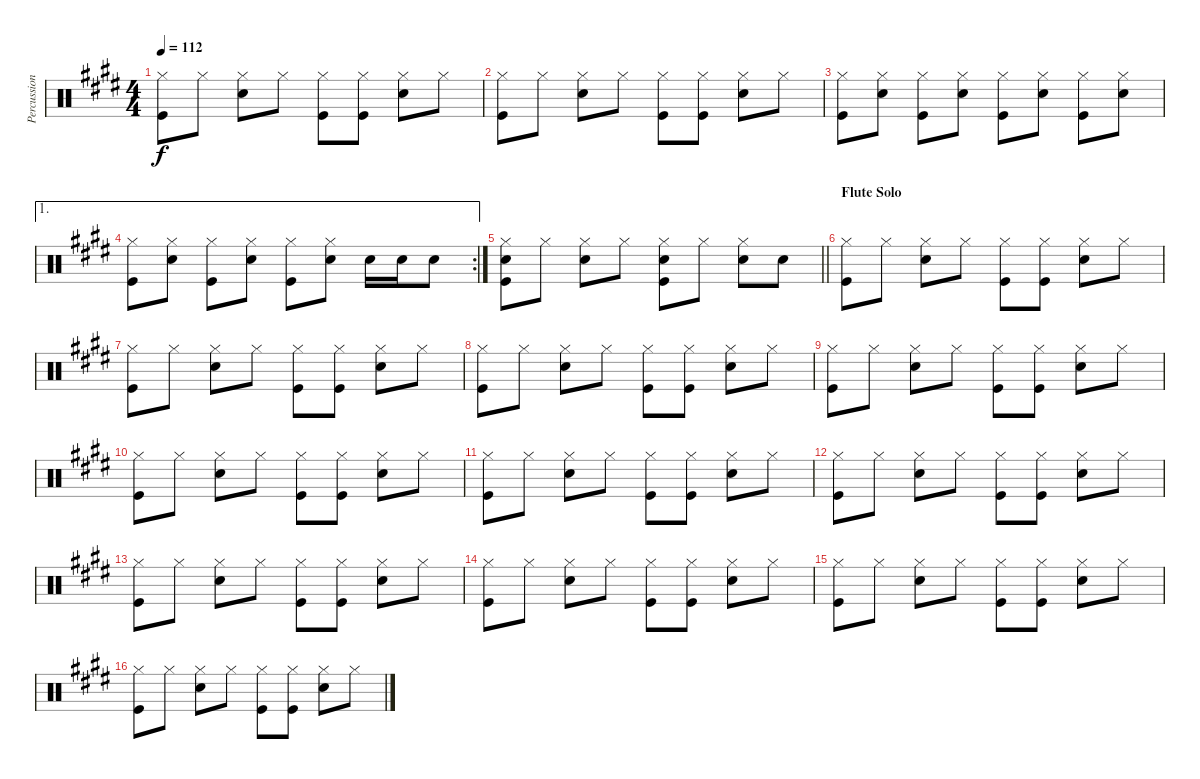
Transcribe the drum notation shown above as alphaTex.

\track ("Percussion" "Percussion") {instrument percussion}
\staff {score}
\articulation defaults
\ts (4 4)
\tempo 112
\clef neutral
\ks e
("Hi-Hat (closed)" "Kick (hit)").8{dy f} "Hi-Hat (closed)".8 ("Hi-Hat (closed)" "Snare (hit) 2").8 "Hi-Hat (closed)".8 ("Hi-Hat (closed)" "Kick (hit)").8 ("Hi-Hat (closed)" "Kick (hit)").8 ("Hi-Hat (closed)" "Snare (hit) 2").8 "Hi-Hat (closed)".8 |
("Hi-Hat (closed)" "Kick (hit)").8 "Hi-Hat (closed)".8 ("Hi-Hat (closed)" "Snare (hit) 2").8 "Hi-Hat (closed)".8 ("Hi-Hat (closed)" "Kick (hit)").8 ("Hi-Hat (closed)" "Kick (hit)").8 ("Hi-Hat (closed)" "Snare (hit) 2").8 "Hi-Hat (closed)".8 |
("Hi-Hat (closed)" "Kick (hit)").8 ("Hi-Hat (closed)" "Snare (hit) 2").8 ("Hi-Hat (closed)" "Kick (hit)").8 ("Hi-Hat (closed)" "Snare (hit) 2").8 ("Hi-Hat (closed)" "Kick (hit)").8 ("Hi-Hat (closed)" "Snare (hit) 2").8 ("Hi-Hat (closed)" "Kick (hit)").8 ("Hi-Hat (closed)" "Snare (hit) 2").8 |
\ae 1
\rc 2
("Hi-Hat (closed)" "Kick (hit)").8 ("Hi-Hat (closed)" "Snare (hit) 2").8 ("Hi-Hat (closed)" "Kick (hit)").8 ("Hi-Hat (closed)" "Snare (hit) 2").8 ("Hi-Hat (closed)" "Kick (hit)").8 ("Hi-Hat (closed)" "Snare (hit) 2").8 "Snare (hit) 2".16 "Snare (hit) 2".16 "Snare (hit) 2".8 |
\barLineRight lightlight
("Hi-Hat (closed)" "Snare (hit) 2" "Kick (hit)").8 "Hi-Hat (closed)".8 ("Hi-Hat (closed)" "Snare (hit) 2").8 "Hi-Hat (closed)".8 ("Hi-Hat (closed)" "Snare (hit) 2" "Kick (hit)").8 "Hi-Hat (closed)".8 ("Hi-Hat (closed)" "Snare (hit) 2").8 "Snare (hit) 2".8 |
\section ("" "Flute Solo")
("Hi-Hat (closed)" "Kick (hit)").8 "Hi-Hat (closed)".8 ("Hi-Hat (closed)" "Snare (hit) 2").8 "Hi-Hat (closed)".8 ("Hi-Hat (closed)" "Kick (hit)").8 ("Hi-Hat (closed)" "Kick (hit)").8 ("Hi-Hat (closed)" "Snare (hit) 2").8 "Hi-Hat (closed)".8 |
("Hi-Hat (closed)" "Kick (hit)").8 "Hi-Hat (closed)".8 ("Hi-Hat (closed)" "Snare (hit) 2").8 "Hi-Hat (closed)".8 ("Hi-Hat (closed)" "Kick (hit)").8 ("Hi-Hat (closed)" "Kick (hit)").8 ("Hi-Hat (closed)" "Snare (hit) 2").8 "Hi-Hat (closed)".8 |
("Hi-Hat (closed)" "Kick (hit)").8 "Hi-Hat (closed)".8 ("Hi-Hat (closed)" "Snare (hit) 2").8 "Hi-Hat (closed)".8 ("Hi-Hat (closed)" "Kick (hit)").8 ("Hi-Hat (closed)" "Kick (hit)").8 ("Hi-Hat (closed)" "Snare (hit) 2").8 "Hi-Hat (closed)".8 |
("Hi-Hat (closed)" "Kick (hit)").8 "Hi-Hat (closed)".8 ("Hi-Hat (closed)" "Snare (hit) 2").8 "Hi-Hat (closed)".8 ("Hi-Hat (closed)" "Kick (hit)").8 ("Hi-Hat (closed)" "Kick (hit)").8 ("Hi-Hat (closed)" "Snare (hit) 2").8 "Hi-Hat (closed)".8 |
("Hi-Hat (closed)" "Kick (hit)").8 "Hi-Hat (closed)".8 ("Hi-Hat (closed)" "Snare (hit) 2").8 "Hi-Hat (closed)".8 ("Hi-Hat (closed)" "Kick (hit)").8 ("Hi-Hat (closed)" "Kick (hit)").8 ("Hi-Hat (closed)" "Snare (hit) 2").8 "Hi-Hat (closed)".8 |
("Hi-Hat (closed)" "Kick (hit)").8 "Hi-Hat (closed)".8 ("Hi-Hat (closed)" "Snare (hit) 2").8 "Hi-Hat (closed)".8 ("Hi-Hat (closed)" "Kick (hit)").8 ("Hi-Hat (closed)" "Kick (hit)").8 ("Hi-Hat (closed)" "Snare (hit) 2").8 "Hi-Hat (closed)".8 |
("Hi-Hat (closed)" "Kick (hit)").8 "Hi-Hat (closed)".8 ("Hi-Hat (closed)" "Snare (hit) 2").8 "Hi-Hat (closed)".8 ("Hi-Hat (closed)" "Kick (hit)").8 ("Hi-Hat (closed)" "Kick (hit)").8 ("Hi-Hat (closed)" "Snare (hit) 2").8 "Hi-Hat (closed)".8 |
("Hi-Hat (closed)" "Kick (hit)").8 "Hi-Hat (closed)".8 ("Hi-Hat (closed)" "Snare (hit) 2").8 "Hi-Hat (closed)".8 ("Hi-Hat (closed)" "Kick (hit)").8 ("Hi-Hat (closed)" "Kick (hit)").8 ("Hi-Hat (closed)" "Snare (hit) 2").8 "Hi-Hat (closed)".8 |
("Hi-Hat (closed)" "Kick (hit)").8 "Hi-Hat (closed)".8 ("Hi-Hat (closed)" "Snare (hit) 2").8 "Hi-Hat (closed)".8 ("Hi-Hat (closed)" "Kick (hit)").8 ("Hi-Hat (closed)" "Kick (hit)").8 ("Hi-Hat (closed)" "Snare (hit) 2").8 "Hi-Hat (closed)".8 |
("Hi-Hat (closed)" "Kick (hit)").8 "Hi-Hat (closed)".8 ("Hi-Hat (closed)" "Snare (hit) 2").8 "Hi-Hat (closed)".8 ("Hi-Hat (closed)" "Kick (hit)").8 ("Hi-Hat (closed)" "Kick (hit)").8 ("Hi-Hat (closed)" "Snare (hit) 2").8 "Hi-Hat (closed)".8 |
("Hi-Hat (closed)" "Kick (hit)").8 "Hi-Hat (closed)".8 ("Hi-Hat (closed)" "Snare (hit) 2").8 "Hi-Hat (closed)".8 ("Hi-Hat (closed)" "Kick (hit)").8 ("Hi-Hat (closed)" "Kick (hit)").8 ("Hi-Hat (closed)" "Snare (hit) 2").8 "Hi-Hat (closed)".8
